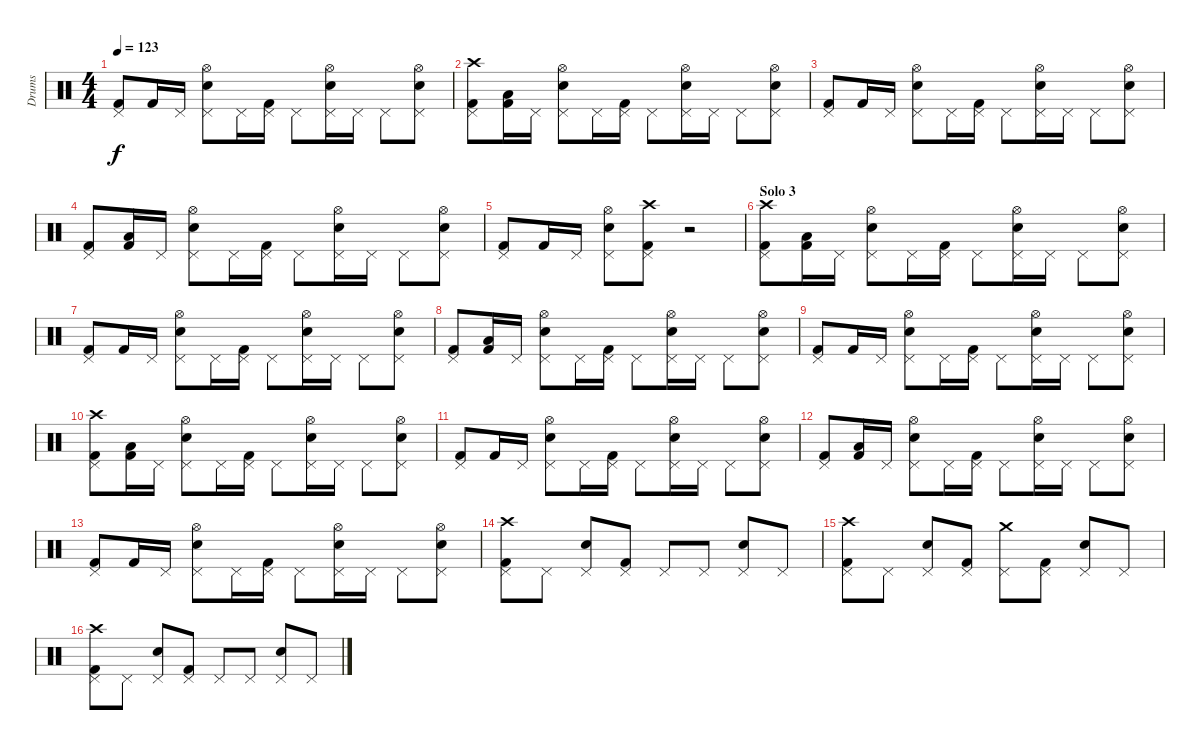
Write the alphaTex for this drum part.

\track ("Drums" "Drums") {instrument percussion}
\staff {score}
\articulation defaults
\ts (4 4)
\tempo 123
\clef neutral
\ks c
("Kick (hit) 2" "Pedal Hi-Hat (hit)").8{dy f} "Kick (hit) 2".16 "Pedal Hi-Hat (hit)".16 ("Snare (hit) 2" "Pedal Hi-Hat (hit)" "Hi-Hat (open)").8 "Pedal Hi-Hat (hit)".16 ("Kick (hit) 2" "Pedal Hi-Hat (hit)").16 "Pedal Hi-Hat (hit)".8 ("Snare (hit) 2" "Pedal Hi-Hat (hit)" "Hi-Hat (open)").16 "Pedal Hi-Hat (hit)".16 "Pedal Hi-Hat (hit)".8 ("Snare (hit) 2" "Pedal Hi-Hat (hit)" "Hi-Hat (open)").8 |
("Kick (hit) 2" "Pedal Hi-Hat (hit)" "Crash high (hit)").8 ("Kick (hit) 2" "Low Tom (hit)").16 "Pedal Hi-Hat (hit)".16 ("Snare (hit) 2" "Pedal Hi-Hat (hit)" "Hi-Hat (open)").8 "Pedal Hi-Hat (hit)".16 ("Kick (hit) 2" "Pedal Hi-Hat (hit)").16 "Pedal Hi-Hat (hit)".8 ("Snare (hit) 2" "Pedal Hi-Hat (hit)" "Hi-Hat (open)").16 "Pedal Hi-Hat (hit)".16 "Pedal Hi-Hat (hit)".8 ("Snare (hit) 2" "Pedal Hi-Hat (hit)" "Hi-Hat (open)").8 |
("Kick (hit) 2" "Pedal Hi-Hat (hit)").8 "Kick (hit) 2".16 "Pedal Hi-Hat (hit)".16 ("Snare (hit) 2" "Pedal Hi-Hat (hit)" "Hi-Hat (open)").8 "Pedal Hi-Hat (hit)".16 ("Kick (hit) 2" "Pedal Hi-Hat (hit)").16 "Pedal Hi-Hat (hit)".8 ("Snare (hit) 2" "Pedal Hi-Hat (hit)" "Hi-Hat (open)").16 "Pedal Hi-Hat (hit)".16 "Pedal Hi-Hat (hit)".8 ("Snare (hit) 2" "Pedal Hi-Hat (hit)" "Hi-Hat (open)").8 |
("Kick (hit) 2" "Pedal Hi-Hat (hit)").8 ("Kick (hit) 2" "Low Tom (hit)").16 "Pedal Hi-Hat (hit)".16 ("Snare (hit) 2" "Pedal Hi-Hat (hit)" "Hi-Hat (open)").8 "Pedal Hi-Hat (hit)".16 ("Kick (hit) 2" "Pedal Hi-Hat (hit)").16 "Pedal Hi-Hat (hit)".8 ("Snare (hit) 2" "Pedal Hi-Hat (hit)" "Hi-Hat (open)").16 "Pedal Hi-Hat (hit)".16 "Pedal Hi-Hat (hit)".8 ("Snare (hit) 2" "Pedal Hi-Hat (hit)" "Hi-Hat (open)").8 |
("Kick (hit) 2" "Pedal Hi-Hat (hit)").8 "Kick (hit) 2".16 "Pedal Hi-Hat (hit)".16 ("Snare (hit) 2" "Pedal Hi-Hat (hit)" "Hi-Hat (open)").8 ("Kick (hit) 2" "Pedal Hi-Hat (hit)" "Crash high (hit)").8 r.2 |
\section ("" "Solo 3")
("Kick (hit) 2" "Pedal Hi-Hat (hit)" "Crash high (hit)").8 ("Kick (hit) 2" "Low Tom (hit)").16 "Pedal Hi-Hat (hit)".16 ("Snare (hit) 2" "Pedal Hi-Hat (hit)" "Hi-Hat (open)").8 "Pedal Hi-Hat (hit)".16 ("Kick (hit) 2" "Pedal Hi-Hat (hit)").16 "Pedal Hi-Hat (hit)".8 ("Snare (hit) 2" "Pedal Hi-Hat (hit)" "Hi-Hat (open)").16 "Pedal Hi-Hat (hit)".16 "Pedal Hi-Hat (hit)".8 ("Snare (hit) 2" "Pedal Hi-Hat (hit)" "Hi-Hat (open)").8 |
("Kick (hit) 2" "Pedal Hi-Hat (hit)").8 "Kick (hit) 2".16 "Pedal Hi-Hat (hit)".16 ("Snare (hit) 2" "Pedal Hi-Hat (hit)" "Hi-Hat (open)").8 "Pedal Hi-Hat (hit)".16 ("Kick (hit) 2" "Pedal Hi-Hat (hit)").16 "Pedal Hi-Hat (hit)".8 ("Snare (hit) 2" "Pedal Hi-Hat (hit)" "Hi-Hat (open)").16 "Pedal Hi-Hat (hit)".16 "Pedal Hi-Hat (hit)".8 ("Snare (hit) 2" "Pedal Hi-Hat (hit)" "Hi-Hat (open)").8 |
("Kick (hit) 2" "Pedal Hi-Hat (hit)").8 ("Kick (hit) 2" "Low Tom (hit)").16 "Pedal Hi-Hat (hit)".16 ("Snare (hit) 2" "Pedal Hi-Hat (hit)" "Hi-Hat (open)").8 "Pedal Hi-Hat (hit)".16 ("Kick (hit) 2" "Pedal Hi-Hat (hit)").16 "Pedal Hi-Hat (hit)".8 ("Snare (hit) 2" "Pedal Hi-Hat (hit)" "Hi-Hat (open)").16 "Pedal Hi-Hat (hit)".16 "Pedal Hi-Hat (hit)".8 ("Snare (hit) 2" "Pedal Hi-Hat (hit)" "Hi-Hat (open)").8 |
("Kick (hit) 2" "Pedal Hi-Hat (hit)").8 "Kick (hit) 2".16 "Pedal Hi-Hat (hit)".16 ("Snare (hit) 2" "Pedal Hi-Hat (hit)" "Hi-Hat (open)").8 "Pedal Hi-Hat (hit)".16 ("Kick (hit) 2" "Pedal Hi-Hat (hit)").16 "Pedal Hi-Hat (hit)".8 ("Snare (hit) 2" "Pedal Hi-Hat (hit)" "Hi-Hat (open)").16 "Pedal Hi-Hat (hit)".16 "Pedal Hi-Hat (hit)".8 ("Snare (hit) 2" "Pedal Hi-Hat (hit)" "Hi-Hat (open)").8 |
("Kick (hit) 2" "Pedal Hi-Hat (hit)" "Crash high (hit)").8 ("Kick (hit) 2" "Low Tom (hit)").16 "Pedal Hi-Hat (hit)".16 ("Snare (hit) 2" "Pedal Hi-Hat (hit)" "Hi-Hat (open)").8 "Pedal Hi-Hat (hit)".16 ("Kick (hit) 2" "Pedal Hi-Hat (hit)").16 "Pedal Hi-Hat (hit)".8 ("Snare (hit) 2" "Pedal Hi-Hat (hit)" "Hi-Hat (open)").16 "Pedal Hi-Hat (hit)".16 "Pedal Hi-Hat (hit)".8 ("Snare (hit) 2" "Pedal Hi-Hat (hit)" "Hi-Hat (open)").8 |
("Kick (hit) 2" "Pedal Hi-Hat (hit)").8 "Kick (hit) 2".16 "Pedal Hi-Hat (hit)".16 ("Snare (hit) 2" "Pedal Hi-Hat (hit)" "Hi-Hat (open)").8 "Pedal Hi-Hat (hit)".16 ("Kick (hit) 2" "Pedal Hi-Hat (hit)").16 "Pedal Hi-Hat (hit)".8 ("Snare (hit) 2" "Pedal Hi-Hat (hit)" "Hi-Hat (open)").16 "Pedal Hi-Hat (hit)".16 "Pedal Hi-Hat (hit)".8 ("Snare (hit) 2" "Pedal Hi-Hat (hit)" "Hi-Hat (open)").8 |
("Kick (hit) 2" "Pedal Hi-Hat (hit)").8 ("Kick (hit) 2" "Low Tom (hit)").16 "Pedal Hi-Hat (hit)".16 ("Snare (hit) 2" "Pedal Hi-Hat (hit)" "Hi-Hat (open)").8 "Pedal Hi-Hat (hit)".16 ("Kick (hit) 2" "Pedal Hi-Hat (hit)").16 "Pedal Hi-Hat (hit)".8 ("Snare (hit) 2" "Pedal Hi-Hat (hit)" "Hi-Hat (open)").16 "Pedal Hi-Hat (hit)".16 "Pedal Hi-Hat (hit)".8 ("Snare (hit) 2" "Pedal Hi-Hat (hit)" "Hi-Hat (open)").8 |
("Kick (hit) 2" "Pedal Hi-Hat (hit)").8 "Kick (hit) 2".16 "Pedal Hi-Hat (hit)".16 ("Snare (hit) 2" "Pedal Hi-Hat (hit)" "Hi-Hat (open)").8 "Pedal Hi-Hat (hit)".16 ("Kick (hit) 2" "Pedal Hi-Hat (hit)").16 "Pedal Hi-Hat (hit)".8 ("Snare (hit) 2" "Pedal Hi-Hat (hit)" "Hi-Hat (open)").16 "Pedal Hi-Hat (hit)".16 "Pedal Hi-Hat (hit)".8 ("Snare (hit) 2" "Pedal Hi-Hat (hit)" "Hi-Hat (open)").8 |
("Kick (hit) 2" "Pedal Hi-Hat (hit)" "Crash high (hit)").8 "Pedal Hi-Hat (hit)".8 ("Snare (hit) 2" "Pedal Hi-Hat (hit)").8 ("Kick (hit) 2" "Pedal Hi-Hat (hit)").8 "Pedal Hi-Hat (hit)".8 "Pedal Hi-Hat (hit)".8 ("Snare (hit) 2" "Pedal Hi-Hat (hit)").8 "Pedal Hi-Hat (hit)".8 |
("Kick (hit) 2" "Pedal Hi-Hat (hit)" "Crash high (hit)").8 "Pedal Hi-Hat (hit)".8 ("Snare (hit) 2" "Pedal Hi-Hat (hit)").8 ("Kick (hit) 2" "Pedal Hi-Hat (hit)").8 ("Pedal Hi-Hat (hit)" "Crash medium (hit)").8 ("Kick (hit) 2" "Pedal Hi-Hat (hit)").8 ("Snare (hit) 2" "Pedal Hi-Hat (hit)").8 "Pedal Hi-Hat (hit)".8 |
("Kick (hit) 2" "Pedal Hi-Hat (hit)" "Crash high (hit)").8 "Pedal Hi-Hat (hit)".8 ("Snare (hit) 2" "Pedal Hi-Hat (hit)").8 ("Kick (hit) 2" "Pedal Hi-Hat (hit)").8 "Pedal Hi-Hat (hit)".8 "Pedal Hi-Hat (hit)".8 ("Snare (hit) 2" "Pedal Hi-Hat (hit)").8 "Pedal Hi-Hat (hit)".8
